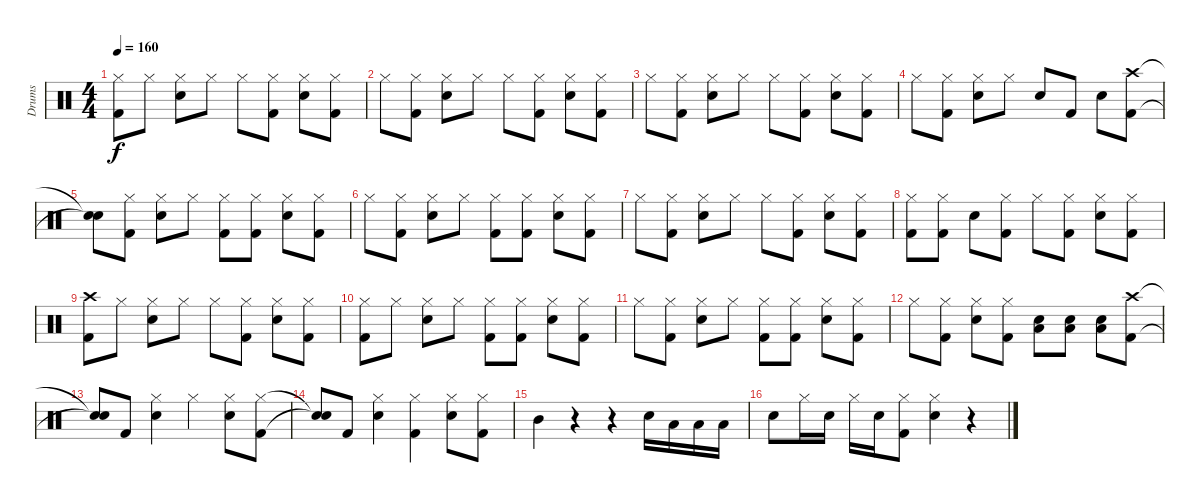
\track ("Drums" "Drums") {instrument percussion}
\staff {score}
\articulation defaults
\ts (4 4)
\tempo 160
\clef neutral
\ks c
("Hi-Hat (closed)" "Kick (hit) 2").8{dy f} "Hi-Hat (closed)".8 ("Hi-Hat (closed)" "Snare (hit) 2").8 "Hi-Hat (closed)".8 "Hi-Hat (closed)".8 ("Hi-Hat (closed)" "Kick (hit) 2").8 ("Hi-Hat (closed)" "Snare (hit) 2").8 ("Hi-Hat (closed)" "Kick (hit) 2").8 |
"Hi-Hat (closed)".8 ("Hi-Hat (closed)" "Kick (hit) 2").8 ("Hi-Hat (closed)" "Snare (hit) 2").8 "Hi-Hat (closed)".8 "Hi-Hat (closed)".8 ("Hi-Hat (closed)" "Kick (hit) 2").8 ("Hi-Hat (closed)" "Snare (hit) 2").8 ("Hi-Hat (closed)" "Kick (hit) 2").8 |
"Hi-Hat (closed)".8 ("Hi-Hat (closed)" "Kick (hit) 2").8 ("Hi-Hat (closed)" "Snare (hit) 2").8 "Hi-Hat (closed)".8 "Hi-Hat (closed)".8 ("Hi-Hat (closed)" "Kick (hit) 2").8 ("Hi-Hat (closed)" "Snare (hit) 2").8 ("Hi-Hat (closed)" "Kick (hit) 2").8 |
"Hi-Hat (closed)".8 ("Hi-Hat (closed)" "Kick (hit) 2").8 ("Hi-Hat (closed)" "Snare (hit) 2").8 "Hi-Hat (closed)".8 "Snare (hit) 2".8 "Kick (hit) 2".8 "Snare (hit) 2".8 ("Crash high (hit)" "Kick (hit) 2").8 |
("Snare (hit)"{t} "Snare (hit)"{t}).8 ("Hi-Hat (closed)" "Kick (hit) 2").8 ("Hi-Hat (closed)" "Snare (hit) 2").8 "Hi-Hat (closed)".8 ("Hi-Hat (closed)" "Kick (hit) 2").8 ("Hi-Hat (closed)" "Kick (hit) 2").8 ("Hi-Hat (closed)" "Snare (hit) 2").8 ("Hi-Hat (closed)" "Kick (hit) 2").8 |
"Hi-Hat (closed)".8 ("Hi-Hat (closed)" "Kick (hit) 2").8 ("Hi-Hat (closed)" "Snare (hit) 2").8 "Hi-Hat (closed)".8 ("Hi-Hat (closed)" "Kick (hit) 2").8 ("Hi-Hat (closed)" "Kick (hit) 2").8 ("Hi-Hat (closed)" "Snare (hit) 2").8 ("Hi-Hat (closed)" "Kick (hit) 2").8 |
"Hi-Hat (closed)".8 ("Hi-Hat (closed)" "Kick (hit) 2").8 ("Hi-Hat (closed)" "Snare (hit) 2").8 "Hi-Hat (closed)".8 "Hi-Hat (closed)".8 ("Hi-Hat (closed)" "Kick (hit) 2").8 ("Hi-Hat (closed)" "Snare (hit) 2").8 ("Hi-Hat (closed)" "Kick (hit) 2").8 |
("Hi-Hat (closed)" "Kick (hit) 2").8 ("Hi-Hat (closed)" "Kick (hit) 2").8 "Snare (hit) 2".8 ("Hi-Hat (closed)" "Kick (hit) 2").8 "Hi-Hat (closed)".8 ("Hi-Hat (closed)" "Kick (hit) 2").8 ("Hi-Hat (closed)" "Snare (hit) 2").8 ("Hi-Hat (closed)" "Kick (hit) 2").8 |
("Crash high (hit)" "Kick (hit) 2").8 "Hi-Hat (closed)".8 ("Hi-Hat (closed)" "Snare (hit) 2").8 "Hi-Hat (closed)".8 "Hi-Hat (closed)".8 ("Hi-Hat (closed)" "Kick (hit) 2").8 ("Hi-Hat (closed)" "Snare (hit) 2").8 ("Hi-Hat (closed)" "Kick (hit) 2").8 |
("Hi-Hat (closed)" "Kick (hit) 2").8 "Hi-Hat (closed)".8 ("Hi-Hat (closed)" "Snare (hit) 2").8 "Hi-Hat (closed)".8 ("Hi-Hat (closed)" "Kick (hit) 2").8 ("Hi-Hat (closed)" "Kick (hit) 2").8 ("Hi-Hat (closed)" "Snare (hit) 2").8 ("Hi-Hat (closed)" "Kick (hit) 2").8 |
"Hi-Hat (closed)".8 ("Hi-Hat (closed)" "Kick (hit) 2").8 ("Hi-Hat (closed)" "Snare (hit) 2").8 "Hi-Hat (closed)".8 ("Hi-Hat (closed)" "Kick (hit) 2").8 ("Hi-Hat (closed)" "Kick (hit) 2").8 ("Hi-Hat (closed)" "Snare (hit) 2").8 ("Hi-Hat (closed)" "Kick (hit) 2").8 |
"Hi-Hat (closed)".8 ("Hi-Hat (closed)" "Kick (hit) 2").8 ("Hi-Hat (closed)" "Snare (hit) 2").8 ("Hi-Hat (closed)" "Kick (hit) 2").8 ("Snare (hit) 2" "Low Tom (hit)").8 ("Snare (hit) 2" "Low Tom (hit)").8 ("Snare (hit) 2" "Low Tom (hit)").8 ("Crash high (hit)" "Kick (hit) 2").8 |
("Snare (hit)"{t} "Snare (hit)"{t}).8 "Kick (hit) 2".8 ("Hi-Hat (closed)" "Snare (hit) 2").4 "Hi-Hat (closed)".4 ("Hi-Hat (closed)" "Snare (hit) 2").8 ("Hi-Hat (closed)" "Kick (hit) 2").8 |
("Snare (hit)"{t} "Snare (hit)"{t}).8 "Kick (hit) 2".8 ("Hi-Hat (closed)" "Snare (hit) 2").4 ("Hi-Hat (closed)" "Kick (hit) 2").4 ("Hi-Hat (closed)" "Snare (hit) 2").8 ("Hi-Hat (closed)" "Kick (hit) 2").8 |
"Mid Tom (hit)".4 r.4 r.4 "Snare (hit) 2".16 "Low Tom (hit)".16 "Low Tom (hit)".16 "Low Floor Tom (hit)".16 |
"Snare (hit) 2".8 "Hi-Hat (closed)".16 "Snare (hit) 2".16 "Hi-Hat (closed)".16 "Snare (hit) 2".16 ("Hi-Hat (closed)" "Kick (hit) 2").8 ("Hi-Hat (closed)" "Snare (hit) 2").4 r.4
